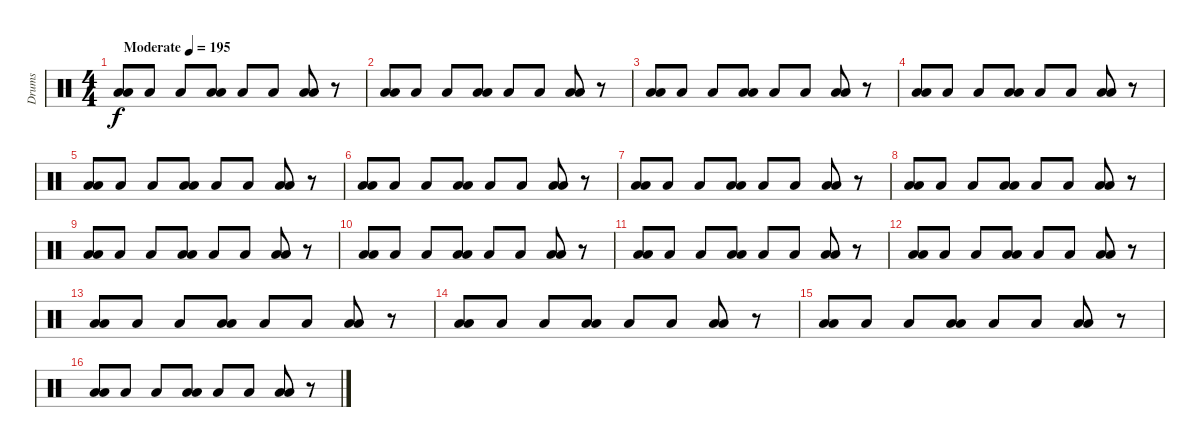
\track ("Drums" "Drums") {instrument percussion}
\staff {score}
\articulation defaults
\ts (4 4)
\tempo (195 "Moderate")
\clef neutral
\ks c
("Low Floor Tom (hit)" "Low Tom (hit)").8{dy f volume 2} "Low Floor Tom (hit)".8{volume 4} "Low Floor Tom (hit)".8 ("Low Floor Tom (hit)" "Low Tom (hit)").8 "Low Floor Tom (hit)".8 "Low Floor Tom (hit)".8 ("Low Floor Tom (hit)" "Low Tom (hit)").8 r.8 |
("Low Floor Tom (hit)" "Low Tom (hit)").8 "Low Floor Tom (hit)".8 "Low Floor Tom (hit)".8 ("Low Floor Tom (hit)" "Low Tom (hit)").8 "Low Floor Tom (hit)".8 "Low Floor Tom (hit)".8 ("Low Floor Tom (hit)" "Low Tom (hit)").8 r.8 |
("Low Floor Tom (hit)" "Low Tom (hit)").8 "Low Floor Tom (hit)".8 "Low Floor Tom (hit)".8 ("Low Floor Tom (hit)" "Low Tom (hit)").8 "Low Floor Tom (hit)".8 "Low Floor Tom (hit)".8 ("Low Floor Tom (hit)" "Low Tom (hit)").8 r.8 |
("Low Floor Tom (hit)" "Low Tom (hit)").8 "Low Floor Tom (hit)".8 "Low Floor Tom (hit)".8 ("Low Floor Tom (hit)" "Low Tom (hit)").8 "Low Floor Tom (hit)".8 "Low Floor Tom (hit)".8 ("Low Floor Tom (hit)" "Low Tom (hit)").8 r.8 |
("Low Floor Tom (hit)" "Low Tom (hit)").8{volume 8} "Low Floor Tom (hit)".8 "Low Floor Tom (hit)".8 ("Low Floor Tom (hit)" "Low Tom (hit)").8 "Low Floor Tom (hit)".8 "Low Floor Tom (hit)".8 ("Low Floor Tom (hit)" "Low Tom (hit)").8 r.8 |
("Low Floor Tom (hit)" "Low Tom (hit)").8 "Low Floor Tom (hit)".8 "Low Floor Tom (hit)".8 ("Low Floor Tom (hit)" "Low Tom (hit)").8 "Low Floor Tom (hit)".8 "Low Floor Tom (hit)".8 ("Low Floor Tom (hit)" "Low Tom (hit)").8 r.8 |
("Low Floor Tom (hit)" "Low Tom (hit)").8 "Low Floor Tom (hit)".8 "Low Floor Tom (hit)".8 ("Low Floor Tom (hit)" "Low Tom (hit)").8 "Low Floor Tom (hit)".8 "Low Floor Tom (hit)".8 ("Low Floor Tom (hit)" "Low Tom (hit)").8 r.8 |
("Low Floor Tom (hit)" "Low Tom (hit)").8 "Low Floor Tom (hit)".8 "Low Floor Tom (hit)".8 ("Low Floor Tom (hit)" "Low Tom (hit)").8 "Low Floor Tom (hit)".8 "Low Floor Tom (hit)".8 ("Low Floor Tom (hit)" "Low Tom (hit)").8 r.8 |
("Low Floor Tom (hit)" "Low Tom (hit)").8 "Low Floor Tom (hit)".8{volume 16} "Low Floor Tom (hit)".8 ("Low Floor Tom (hit)" "Low Tom (hit)").8 "Low Floor Tom (hit)".8 "Low Floor Tom (hit)".8 ("Low Floor Tom (hit)" "Low Tom (hit)").8 r.8 |
("Low Floor Tom (hit)" "Low Tom (hit)").8 "Low Floor Tom (hit)".8 "Low Floor Tom (hit)".8 ("Low Floor Tom (hit)" "Low Tom (hit)").8 "Low Floor Tom (hit)".8 "Low Floor Tom (hit)".8 ("Low Floor Tom (hit)" "Low Tom (hit)").8 r.8 |
("Low Floor Tom (hit)" "Low Tom (hit)").8 "Low Floor Tom (hit)".8 "Low Floor Tom (hit)".8 ("Low Floor Tom (hit)" "Low Tom (hit)").8 "Low Floor Tom (hit)".8 "Low Floor Tom (hit)".8 ("Low Floor Tom (hit)" "Low Tom (hit)").8 r.8 |
("Low Floor Tom (hit)" "Low Tom (hit)").8 "Low Floor Tom (hit)".8 "Low Floor Tom (hit)".8 ("Low Floor Tom (hit)" "Low Tom (hit)").8 "Low Floor Tom (hit)".8 "Low Floor Tom (hit)".8 ("Low Floor Tom (hit)" "Low Tom (hit)").8 r.8 |
("Low Floor Tom (hit)" "Low Tom (hit)").8 "Low Floor Tom (hit)".8 "Low Floor Tom (hit)".8 ("Low Floor Tom (hit)" "Low Tom (hit)").8 "Low Floor Tom (hit)".8 "Low Floor Tom (hit)".8 ("Low Floor Tom (hit)" "Low Tom (hit)").8 r.8 |
("Low Floor Tom (hit)" "Low Tom (hit)").8 "Low Floor Tom (hit)".8 "Low Floor Tom (hit)".8 ("Low Floor Tom (hit)" "Low Tom (hit)").8 "Low Floor Tom (hit)".8 "Low Floor Tom (hit)".8 ("Low Floor Tom (hit)" "Low Tom (hit)").8 r.8 |
("Low Floor Tom (hit)" "Low Tom (hit)").8 "Low Floor Tom (hit)".8 "Low Floor Tom (hit)".8 ("Low Floor Tom (hit)" "Low Tom (hit)").8 "Low Floor Tom (hit)".8 "Low Floor Tom (hit)".8 ("Low Floor Tom (hit)" "Low Tom (hit)").8 r.8 |
("Low Floor Tom (hit)" "Low Tom (hit)").8 "Low Floor Tom (hit)".8 "Low Floor Tom (hit)".8 ("Low Floor Tom (hit)" "Low Tom (hit)").8 "Low Floor Tom (hit)".8 "Low Floor Tom (hit)".8 ("Low Floor Tom (hit)" "Low Tom (hit)").8 r.8
